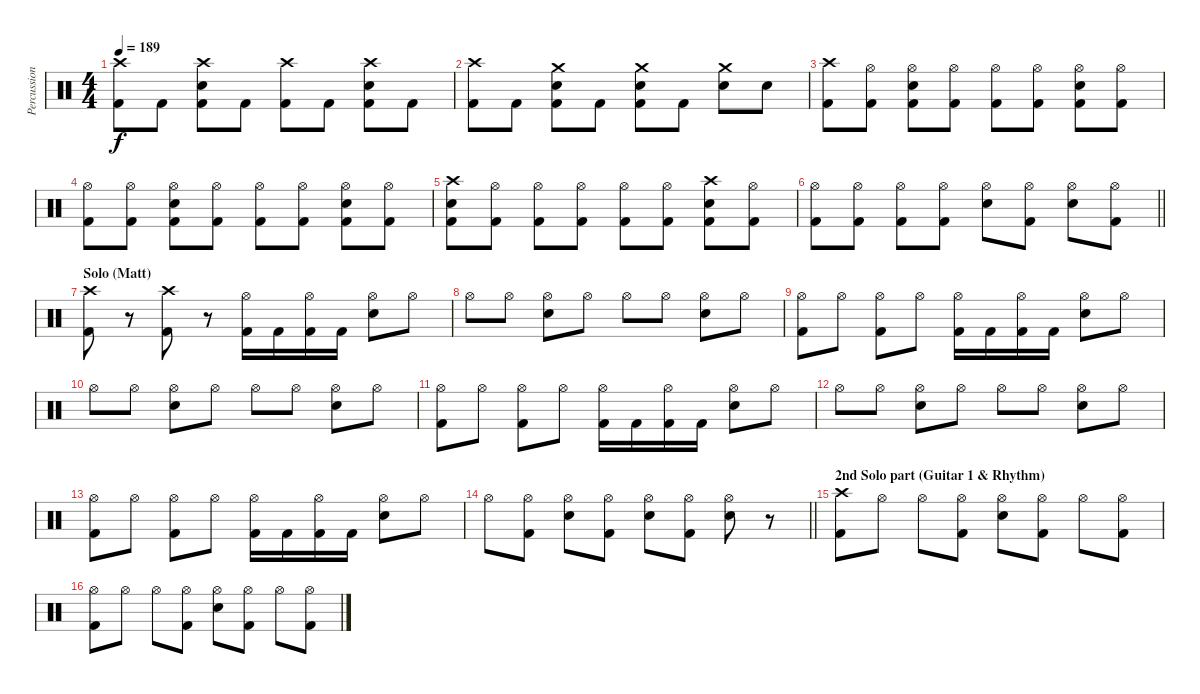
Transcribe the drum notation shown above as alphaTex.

\track ("Percussion" "Percussion") {instrument percussion}
\staff {score}
\articulation defaults
\ts (4 4)
\tempo 189
\clef neutral
\ks c
("Crash high (hit)" "Kick (hit) 2").8{dy f} "Kick (hit) 2".8 ("Crash high (hit)" "Electric Snare (hit)" "Kick (hit) 2").8 "Kick (hit) 2".8 ("Crash high (hit)" "Kick (hit) 2").8 "Kick (hit) 2".8 ("Crash high (hit)" "Electric Snare (hit)" "Kick (hit) 2").8 "Kick (hit) 2".8 |
("Crash high (hit)" "Kick (hit) 2").8 "Kick (hit) 2".8 ("Crash medium (hit)" "Electric Snare (hit)" "Kick (hit) 2").8 "Kick (hit) 2".8 ("Crash medium (hit)" "Electric Snare (hit)" "Kick (hit) 2").8 "Kick (hit) 2".8 ("Crash medium (hit)" "Electric Snare (hit)").8 "Electric Snare (hit)".8 |
("Crash high (hit)" "Kick (hit) 2").8 ("Hi-Hat (open)" "Kick (hit) 2").8 ("Hi-Hat (open)" "Electric Snare (hit)" "Kick (hit) 2").8 ("Hi-Hat (open)" "Kick (hit) 2").8 ("Hi-Hat (open)" "Kick (hit) 2").8 ("Hi-Hat (open)" "Kick (hit) 2").8 ("Hi-Hat (open)" "Electric Snare (hit)" "Kick (hit) 2").8 ("Hi-Hat (open)" "Kick (hit) 2").8 |
("Hi-Hat (open)" "Kick (hit) 2").8 ("Hi-Hat (open)" "Kick (hit) 2").8 ("Hi-Hat (open)" "Electric Snare (hit)" "Kick (hit) 2").8 ("Hi-Hat (open)" "Kick (hit) 2").8 ("Hi-Hat (open)" "Kick (hit) 2").8 ("Hi-Hat (open)" "Kick (hit) 2").8 ("Hi-Hat (open)" "Electric Snare (hit)" "Kick (hit) 2").8 ("Hi-Hat (open)" "Kick (hit) 2").8 |
("Crash high (hit)" "Electric Snare (hit)" "Kick (hit) 2").8 ("Hi-Hat (open)" "Kick (hit) 2").8 ("Hi-Hat (open)" "Kick (hit) 2").8 ("Hi-Hat (open)" "Kick (hit) 2").8 ("Hi-Hat (open)" "Kick (hit) 2").8 ("Hi-Hat (open)" "Kick (hit) 2").8 ("Crash high (hit)" "Electric Snare (hit)" "Kick (hit) 2").8 ("Hi-Hat (open)" "Kick (hit) 2").8 |
\barLineRight lightlight
("Hi-Hat (open)" "Kick (hit) 2").8 ("Hi-Hat (open)" "Kick (hit) 2").8 ("Hi-Hat (open)" "Kick (hit) 2").8 ("Hi-Hat (open)" "Kick (hit) 2").8 ("Hi-Hat (open)" "Electric Snare (hit)").8 ("Hi-Hat (open)" "Kick (hit) 2").8 ("Hi-Hat (open)" "Electric Snare (hit)").8 ("Hi-Hat (open)" "Kick (hit) 2").8 |
\section ("" "Solo (Matt)")
("Crash high (hit)" "Kick (hit) 2").8 r.8 ("Crash high (hit)" "Kick (hit) 2").8 r.8 ("Hi-Hat (open)" "Kick (hit) 2").16 "Kick (hit) 2".16 ("Hi-Hat (open)" "Kick (hit) 2").16 "Kick (hit) 2".16 ("Hi-Hat (open)" "Electric Snare (hit)").8 "Hi-Hat (open)".8 |
"Hi-Hat (open)".8 "Hi-Hat (open)".8 ("Hi-Hat (open)" "Electric Snare (hit)").8 "Hi-Hat (open)".8 "Hi-Hat (open)".8 "Hi-Hat (open)".8 ("Hi-Hat (open)" "Electric Snare (hit)").8 "Hi-Hat (open)".8 |
("Hi-Hat (open)" "Kick (hit) 2").8 "Hi-Hat (open)".8 ("Hi-Hat (open)" "Kick (hit) 2").8 "Hi-Hat (open)".8 ("Hi-Hat (open)" "Kick (hit) 2").16 "Kick (hit) 2".16 ("Hi-Hat (open)" "Kick (hit) 2").16 "Kick (hit) 2".16 ("Hi-Hat (open)" "Electric Snare (hit)").8 "Hi-Hat (open)".8 |
"Hi-Hat (open)".8 "Hi-Hat (open)".8 ("Hi-Hat (open)" "Electric Snare (hit)").8 "Hi-Hat (open)".8 "Hi-Hat (open)".8 "Hi-Hat (open)".8 ("Hi-Hat (open)" "Electric Snare (hit)").8 "Hi-Hat (open)".8 |
("Hi-Hat (open)" "Kick (hit) 2").8 "Hi-Hat (open)".8 ("Hi-Hat (open)" "Kick (hit) 2").8 "Hi-Hat (open)".8 ("Hi-Hat (open)" "Kick (hit) 2").16 "Kick (hit) 2".16 ("Hi-Hat (open)" "Kick (hit) 2").16 "Kick (hit) 2".16 ("Hi-Hat (open)" "Electric Snare (hit)").8 "Hi-Hat (open)".8 |
"Hi-Hat (open)".8 "Hi-Hat (open)".8 ("Hi-Hat (open)" "Electric Snare (hit)").8 "Hi-Hat (open)".8 "Hi-Hat (open)".8 "Hi-Hat (open)".8 ("Hi-Hat (open)" "Electric Snare (hit)").8 "Hi-Hat (open)".8 |
("Hi-Hat (open)" "Kick (hit) 2").8 "Hi-Hat (open)".8 ("Hi-Hat (open)" "Kick (hit) 2").8 "Hi-Hat (open)".8 ("Hi-Hat (open)" "Kick (hit) 2").16 "Kick (hit) 2".16 ("Hi-Hat (open)" "Kick (hit) 2").16 "Kick (hit) 2".16 ("Hi-Hat (open)" "Electric Snare (hit)").8 "Hi-Hat (open)".8 |
\barLineRight lightlight "Hi-Hat (open)".8
("Hi-Hat (open)" "Kick (hit) 2").8 ("Hi-Hat (open)" "Electric Snare (hit)").8 ("Hi-Hat (open)" "Kick (hit) 2").8 ("Hi-Hat (open)" "Electric Snare (hit)").8 ("Hi-Hat (open)" "Kick (hit) 2").8 ("Hi-Hat (open)" "Electric Snare (hit)").8 r.8 |
\section ("" "2nd Solo part (Guitar 1 & Rhythm)")
("Crash high (hit)" "Kick (hit) 2").8 "Hi-Hat (open)".8 "Hi-Hat (open)".8 ("Hi-Hat (open)" "Kick (hit) 2").8 ("Hi-Hat (open)" "Electric Snare (hit)").8 ("Hi-Hat (open)" "Kick (hit) 2").8 "Hi-Hat (open)".8 ("Hi-Hat (open)" "Kick (hit) 2").8 |
("Hi-Hat (open)" "Kick (hit) 2").8 "Hi-Hat (open)".8 "Hi-Hat (open)".8 ("Hi-Hat (open)" "Kick (hit) 2").8 ("Hi-Hat (open)" "Electric Snare (hit)").8 ("Hi-Hat (open)" "Kick (hit) 2").8 "Hi-Hat (open)".8 ("Hi-Hat (open)" "Kick (hit) 2").8
